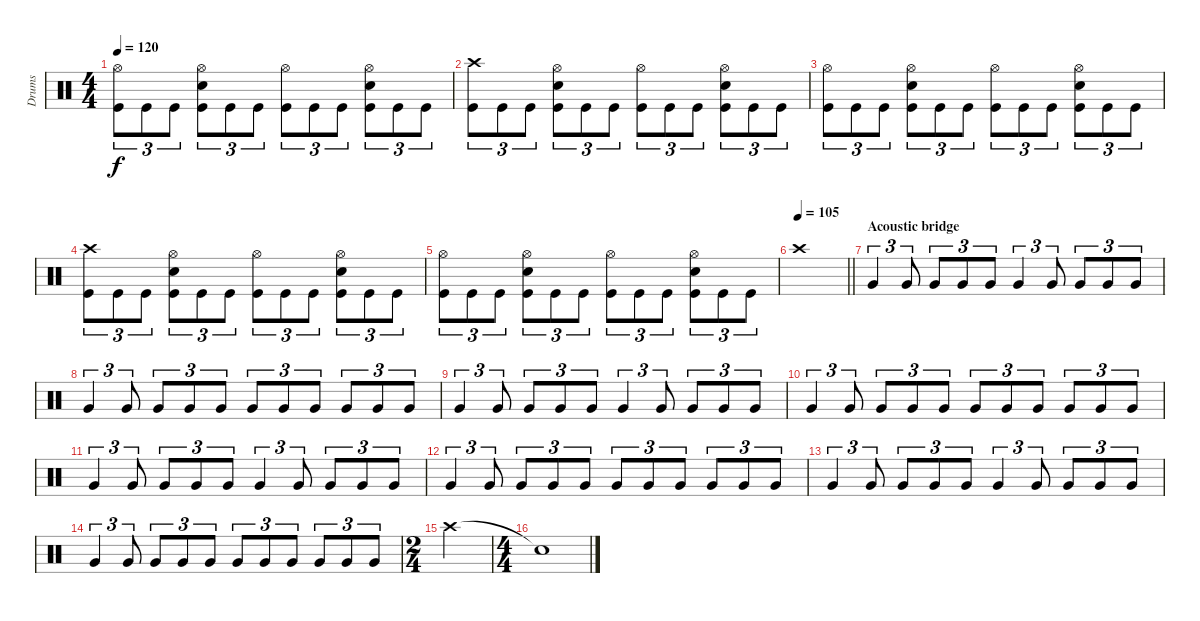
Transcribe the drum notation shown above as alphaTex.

\track ("Drums" "Drums") {instrument percussion}
\staff {score}
\articulation defaults
\ts (4 4)
\tempo 120
\clef neutral
\ks c
("Hi-Hat (open)" "Kick (hit)").8{tu (3 2) dy f} "Kick (hit)".8{tu (3 2)} "Kick (hit)".8{tu (3 2)} ("Hi-Hat (open)" "Snare (hit) 2" "Kick (hit)").8{tu (3 2)} "Kick (hit)".8{tu (3 2)} "Kick (hit)".8{tu (3 2)} ("Hi-Hat (open)" "Kick (hit)").8{tu (3 2)} "Kick (hit)".8{tu (3 2)} "Kick (hit)".8{tu (3 2)} ("Hi-Hat (open)" "Snare (hit) 2" "Kick (hit)").8{tu (3 2)} "Kick (hit)".8{tu (3 2)} "Kick (hit)".8{tu (3 2)} |
("Crash high (hit)" "Kick (hit)").8{tu (3 2)} "Kick (hit)".8{tu (3 2)} "Kick (hit)".8{tu (3 2)} ("Hi-Hat (open)" "Snare (hit) 2" "Kick (hit)").8{tu (3 2)} "Kick (hit)".8{tu (3 2)} "Kick (hit)".8{tu (3 2)} ("Hi-Hat (open)" "Kick (hit)").8{tu (3 2)} "Kick (hit)".8{tu (3 2)} "Kick (hit)".8{tu (3 2)} ("Hi-Hat (open)" "Snare (hit) 2" "Kick (hit)").8{tu (3 2)} "Kick (hit)".8{tu (3 2)} "Kick (hit)".8{tu (3 2)} |
("Hi-Hat (open)" "Kick (hit)").8{tu (3 2)} "Kick (hit)".8{tu (3 2)} "Kick (hit)".8{tu (3 2)} ("Hi-Hat (open)" "Snare (hit) 2" "Kick (hit)").8{tu (3 2)} "Kick (hit)".8{tu (3 2)} "Kick (hit)".8{tu (3 2)} ("Hi-Hat (open)" "Kick (hit)").8{tu (3 2)} "Kick (hit)".8{tu (3 2)} "Kick (hit)".8{tu (3 2)} ("Hi-Hat (open)" "Snare (hit) 2" "Kick (hit)").8{tu (3 2)} "Kick (hit)".8{tu (3 2)} "Kick (hit)".8{tu (3 2)} |
("Crash high (hit)" "Kick (hit)").8{tu (3 2)} "Kick (hit)".8{tu (3 2)} "Kick (hit)".8{tu (3 2)} ("Hi-Hat (open)" "Snare (hit) 2" "Kick (hit)").8{tu (3 2)} "Kick (hit)".8{tu (3 2)} "Kick (hit)".8{tu (3 2)} ("Hi-Hat (open)" "Kick (hit)").8{tu (3 2)} "Kick (hit)".8{tu (3 2)} "Kick (hit)".8{tu (3 2)} ("Hi-Hat (open)" "Snare (hit) 2" "Kick (hit)").8{tu (3 2)} "Kick (hit)".8{tu (3 2)} "Kick (hit)".8{tu (3 2)} |
("Hi-Hat (open)" "Kick (hit)").8{tu (3 2)} "Kick (hit)".8{tu (3 2)} "Kick (hit)".8{tu (3 2)} ("Hi-Hat (open)" "Snare (hit) 2" "Kick (hit)").8{tu (3 2)} "Kick (hit)".8{tu (3 2)} "Kick (hit)".8{tu (3 2)} ("Hi-Hat (open)" "Kick (hit)").8{tu (3 2)} "Kick (hit)".8{tu (3 2)} "Kick (hit)".8{tu (3 2)} ("Hi-Hat (open)" "Snare (hit) 2" "Kick (hit)").8{tu (3 2)} "Kick (hit)".8{tu (3 2)} "Kick (hit)".8{tu (3 2)} |
\tempo 105
\barLineRight lightlight "Crash high (hit)".1
|
\section ("" "Acoustic bridge")
"Very Low Tom (hit)".4{tu (3 2)} "Very Low Tom (hit)".8{tu (3 2)} "Very Low Tom (hit)".8{tu (3 2)} "Very Low Tom (hit)".8{tu (3 2)} "Very Low Tom (hit)".8{tu (3 2)} "Very Low Tom (hit)".4{tu (3 2)} "Very Low Tom (hit)".8{tu (3 2)} "Very Low Tom (hit)".8{tu (3 2)} "Very Low Tom (hit)".8{tu (3 2)} "Very Low Tom (hit)".8{tu (3 2)} |
"Very Low Tom (hit)".4{tu (3 2)} "Very Low Tom (hit)".8{tu (3 2)} "Very Low Tom (hit)".8{tu (3 2)} "Very Low Tom (hit)".8{tu (3 2)} "Very Low Tom (hit)".8{tu (3 2)} "Very Low Tom (hit)".8{tu (3 2)} "Very Low Tom (hit)".8{tu (3 2)} "Very Low Tom (hit)".8{tu (3 2)} "Very Low Tom (hit)".8{tu (3 2)} "Very Low Tom (hit)".8{tu (3 2)} "Very Low Tom (hit)".8{tu (3 2)} |
"Very Low Tom (hit)".4{tu (3 2)} "Very Low Tom (hit)".8{tu (3 2)} "Very Low Tom (hit)".8{tu (3 2)} "Very Low Tom (hit)".8{tu (3 2)} "Very Low Tom (hit)".8{tu (3 2)} "Very Low Tom (hit)".4{tu (3 2)} "Very Low Tom (hit)".8{tu (3 2)} "Very Low Tom (hit)".8{tu (3 2)} "Very Low Tom (hit)".8{tu (3 2)} "Very Low Tom (hit)".8{tu (3 2)} |
"Very Low Tom (hit)".4{tu (3 2)} "Very Low Tom (hit)".8{tu (3 2)} "Very Low Tom (hit)".8{tu (3 2)} "Very Low Tom (hit)".8{tu (3 2)} "Very Low Tom (hit)".8{tu (3 2)} "Very Low Tom (hit)".8{tu (3 2)} "Very Low Tom (hit)".8{tu (3 2)} "Very Low Tom (hit)".8{tu (3 2)} "Very Low Tom (hit)".8{tu (3 2)} "Very Low Tom (hit)".8{tu (3 2)} "Very Low Tom (hit)".8{tu (3 2)} |
"Very Low Tom (hit)".4{tu (3 2)} "Very Low Tom (hit)".8{tu (3 2)} "Very Low Tom (hit)".8{tu (3 2)} "Very Low Tom (hit)".8{tu (3 2)} "Very Low Tom (hit)".8{tu (3 2)} "Very Low Tom (hit)".4{tu (3 2)} "Very Low Tom (hit)".8{tu (3 2)} "Very Low Tom (hit)".8{tu (3 2)} "Very Low Tom (hit)".8{tu (3 2)} "Very Low Tom (hit)".8{tu (3 2)} |
"Very Low Tom (hit)".4{tu (3 2)} "Very Low Tom (hit)".8{tu (3 2)} "Very Low Tom (hit)".8{tu (3 2)} "Very Low Tom (hit)".8{tu (3 2)} "Very Low Tom (hit)".8{tu (3 2)} "Very Low Tom (hit)".8{tu (3 2)} "Very Low Tom (hit)".8{tu (3 2)} "Very Low Tom (hit)".8{tu (3 2)} "Very Low Tom (hit)".8{tu (3 2)} "Very Low Tom (hit)".8{tu (3 2)} "Very Low Tom (hit)".8{tu (3 2)} |
"Very Low Tom (hit)".4{tu (3 2)} "Very Low Tom (hit)".8{tu (3 2)} "Very Low Tom (hit)".8{tu (3 2)} "Very Low Tom (hit)".8{tu (3 2)} "Very Low Tom (hit)".8{tu (3 2)} "Very Low Tom (hit)".4{tu (3 2)} "Very Low Tom (hit)".8{tu (3 2)} "Very Low Tom (hit)".8{tu (3 2)} "Very Low Tom (hit)".8{tu (3 2)} "Very Low Tom (hit)".8{tu (3 2)} |
"Very Low Tom (hit)".4{tu (3 2)} "Very Low Tom (hit)".8{tu (3 2)} "Very Low Tom (hit)".8{tu (3 2)} "Very Low Tom (hit)".8{tu (3 2)} "Very Low Tom (hit)".8{tu (3 2)} "Very Low Tom (hit)".8{tu (3 2)} "Very Low Tom (hit)".8{tu (3 2)} "Very Low Tom (hit)".8{tu (3 2)} "Very Low Tom (hit)".8{tu (3 2)} "Very Low Tom (hit)".8{tu (3 2)} "Very Low Tom (hit)".8{tu (3 2)} |
\ts (2 4)
"Crash high (hit)".2 |
\ts (4 4)
"Snare (hit)"{t}.1
